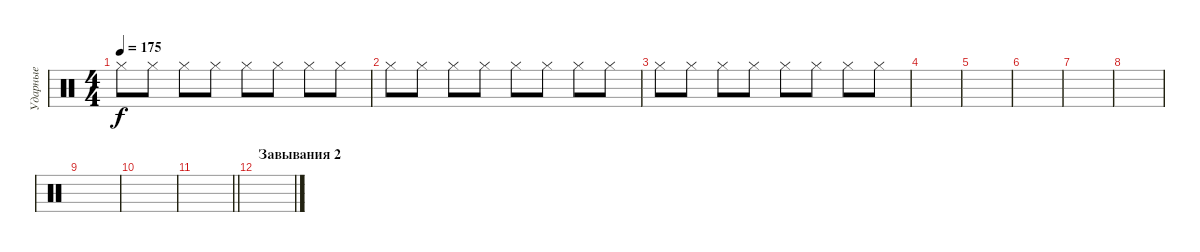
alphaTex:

\track ("Ударные" "Ударные") {instrument percussion}
\staff {score}
\articulation defaults
\ts (4 4)
\tempo 175
\clef neutral
\ks c "Hi-Hat (closed)".8{dy f} "Hi-Hat (closed)".8 "Hi-Hat (closed)".8 "Hi-Hat (closed)".8 "Hi-Hat (closed)".8 "Hi-Hat (closed)".8 "Hi-Hat (closed)".8 "Hi-Hat (closed)".8
|
"Hi-Hat (closed)".8 "Hi-Hat (closed)".8 "Hi-Hat (closed)".8 "Hi-Hat (closed)".8 "Hi-Hat (closed)".8 "Hi-Hat (closed)".8 "Hi-Hat (closed)".8 "Hi-Hat (closed)".8 |
"Hi-Hat (closed)".8 "Hi-Hat (closed)".8 "Hi-Hat (closed)".8 "Hi-Hat (closed)".8 "Hi-Hat (closed)".8 "Hi-Hat (closed)".8 "Hi-Hat (closed)".8 "Hi-Hat (closed)".8 |
|
|
|
|
|
|
|
\barLineRight lightlight
|
\section ("" "Завывания 2")
